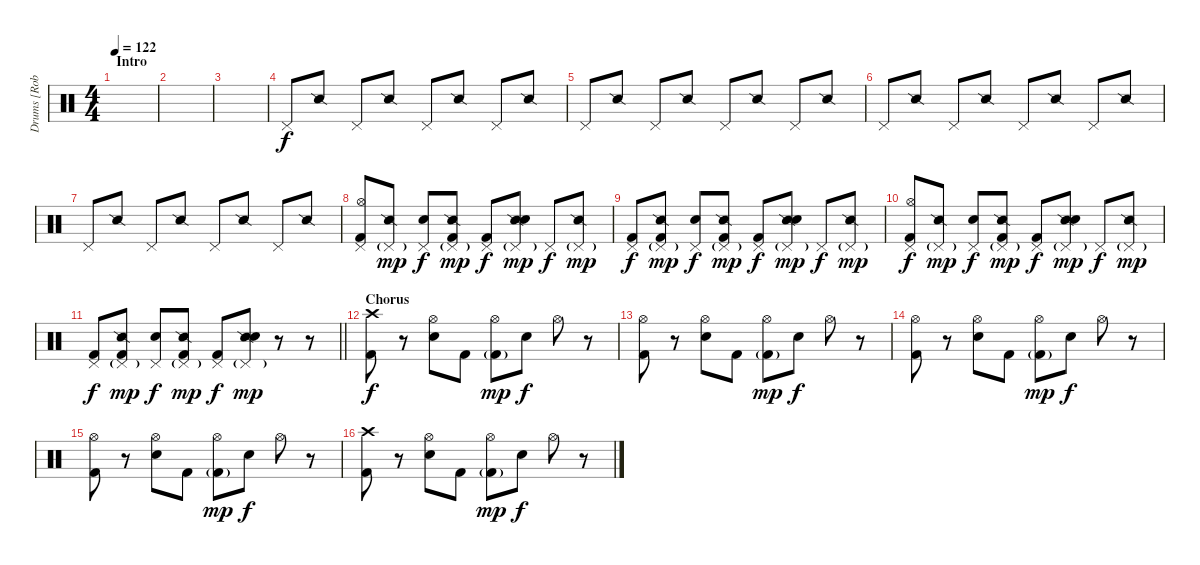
\track ("Drums [Rob Bourdon]" "Drums [Rob") {solo instrument percussion}
\staff {score}
\articulation defaults
\ts (4 4)
\section ("" "Intro")
\tempo 122
\clef neutral
\ks c
|
|
|
"Pedal Hi-Hat (hit)".8 "Snare (side stick) 2".8 "Pedal Hi-Hat (hit)".8 "Snare (side stick) 2".8 "Pedal Hi-Hat (hit)".8 "Snare (side stick) 2".8 "Pedal Hi-Hat (hit)".8 "Snare (side stick) 2".8 |
"Pedal Hi-Hat (hit)".8 "Snare (side stick) 2".8 "Pedal Hi-Hat (hit)".8 "Snare (side stick) 2".8 "Pedal Hi-Hat (hit)".8 "Snare (side stick) 2".8 "Pedal Hi-Hat (hit)".8 "Snare (side stick) 2".8 |
"Pedal Hi-Hat (hit)".8 "Snare (side stick) 2".8 "Pedal Hi-Hat (hit)".8 "Snare (side stick) 2".8 "Pedal Hi-Hat (hit)".8 "Snare (side stick) 2".8 "Pedal Hi-Hat (hit)".8 "Snare (side stick) 2".8 |
"Pedal Hi-Hat (hit)".8 "Snare (side stick) 2".8 "Pedal Hi-Hat (hit)".8 "Snare (side stick) 2".8 "Pedal Hi-Hat (hit)".8 "Snare (side stick) 2".8 "Pedal Hi-Hat (hit)".8 "Snare (side stick) 2".8 |
("Pedal Hi-Hat (hit)" "Hi-Hat (open)" "Kick (hit) 2").8 ("Snare (side stick) 2" "Pedal Hi-Hat (hit)"{g}).8{dy mp} ("Pedal Hi-Hat (hit)" "Electric Snare (hit)").8{dy f} ("Snare (side stick) 2" "Pedal Hi-Hat (hit)"{g} "Kick (hit) 2").8{dy mp} ("Pedal Hi-Hat (hit)" "Kick (hit) 2").8{dy f} ("Snare (side stick) 2" "Pedal Hi-Hat (hit)"{g} "Electric Snare (hit)").8{dy mp} "Pedal Hi-Hat (hit)".8{dy f} ("Snare (side stick) 2" "Pedal Hi-Hat (hit)"{g}).8{dy mp} |
("Pedal Hi-Hat (hit)" "Kick (hit) 2").8{dy f} ("Snare (side stick) 2" "Pedal Hi-Hat (hit)"{g} "Kick (hit) 2").8{dy mp} ("Pedal Hi-Hat (hit)" "Electric Snare (hit)").8{dy f} ("Snare (side stick) 2" "Pedal Hi-Hat (hit)"{g} "Kick (hit) 2").8{dy mp} ("Pedal Hi-Hat (hit)" "Kick (hit) 2").8{dy f} ("Snare (side stick) 2" "Pedal Hi-Hat (hit)"{g} "Electric Snare (hit)").8{dy mp} "Pedal Hi-Hat (hit)".8{dy f} ("Snare (side stick) 2" "Pedal Hi-Hat (hit)"{g}).8{dy mp} |
("Pedal Hi-Hat (hit)" "Hi-Hat (open)" "Kick (hit) 2").8{dy f} ("Snare (side stick) 2" "Pedal Hi-Hat (hit)"{g}).8{dy mp} ("Pedal Hi-Hat (hit)" "Electric Snare (hit)").8{dy f} ("Snare (side stick) 2" "Pedal Hi-Hat (hit)"{g} "Kick (hit) 2").8{dy mp} ("Pedal Hi-Hat (hit)" "Kick (hit) 2").8{dy f} ("Snare (side stick) 2" "Pedal Hi-Hat (hit)"{g} "Electric Snare (hit)").8{dy mp} "Pedal Hi-Hat (hit)".8{dy f} ("Snare (side stick) 2" "Pedal Hi-Hat (hit)"{g}).8{dy mp} |
\barLineRight lightlight
("Pedal Hi-Hat (hit)" "Kick (hit) 2").8{dy f} ("Snare (side stick) 2" "Pedal Hi-Hat (hit)"{g} "Kick (hit) 2").8{dy mp} ("Pedal Hi-Hat (hit)" "Electric Snare (hit)").8{dy f} ("Snare (side stick) 2" "Pedal Hi-Hat (hit)"{g} "Kick (hit) 2").8{dy mp} ("Pedal Hi-Hat (hit)" "Kick (hit) 2").8{dy f} ("Snare (side stick) 2" "Pedal Hi-Hat (hit)"{g} "Electric Snare (hit)").8{dy mp} r.8 r.8 |
\section ("" "Chorus")
("Crash high (hit)" "Kick (hit) 2").8{dy f} r.8 ("Hi-Hat (open)" "Electric Snare (hit)").8 "Kick (hit) 2".8 ("Hi-Hat (open)" "Kick (hit) 2"{g}).8{dy mp} "Electric Snare (hit)".8{dy f} "Hi-Hat (open)".8 r.8 |
("Hi-Hat (open)" "Kick (hit) 2").8 r.8 ("Hi-Hat (open)" "Electric Snare (hit)").8 "Kick (hit) 2".8 ("Hi-Hat (open)" "Kick (hit) 2"{g}).8{dy mp} "Electric Snare (hit)".8{dy f} "Hi-Hat (open)".8 r.8 |
("Hi-Hat (open)" "Kick (hit) 2").8 r.8 ("Hi-Hat (open)" "Electric Snare (hit)").8 "Kick (hit) 2".8 ("Hi-Hat (open)" "Kick (hit) 2"{g}).8{dy mp} "Electric Snare (hit)".8{dy f} "Hi-Hat (open)".8 r.8 |
("Hi-Hat (open)" "Kick (hit) 2").8 r.8 ("Hi-Hat (open)" "Electric Snare (hit)").8 "Kick (hit) 2".8 ("Hi-Hat (open)" "Kick (hit) 2"{g}).8{dy mp} "Electric Snare (hit)".8{dy f} "Hi-Hat (open)".8 r.8 |
("Crash high (hit)" "Kick (hit) 2").8 r.8 ("Hi-Hat (open)" "Electric Snare (hit)").8 "Kick (hit) 2".8 ("Hi-Hat (open)" "Kick (hit) 2"{g}).8{dy mp} "Electric Snare (hit)".8{dy f} "Hi-Hat (open)".8 r.8
